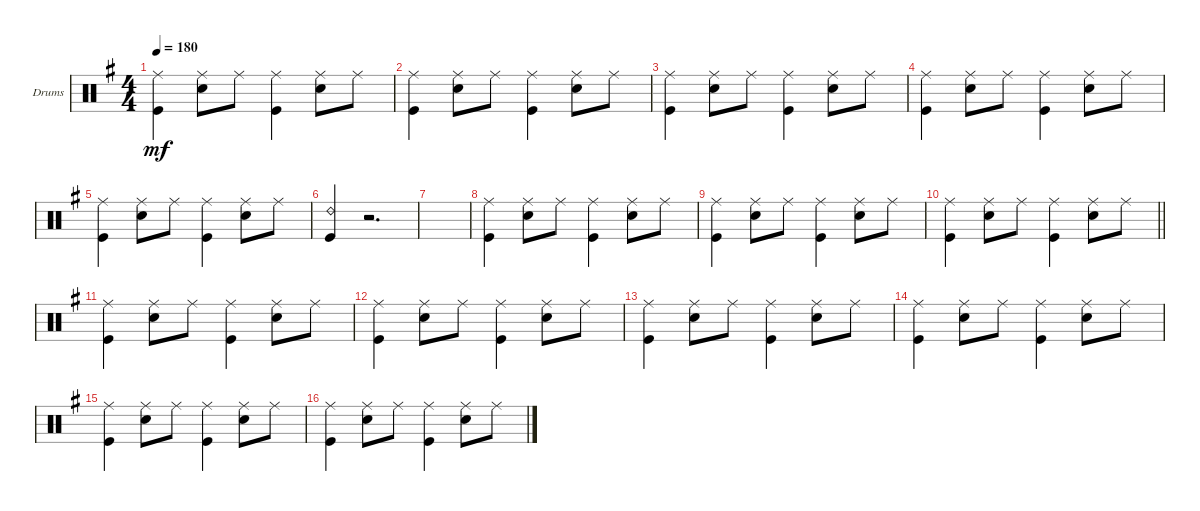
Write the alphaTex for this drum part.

\defaultSystemsLayout 4
\bracketExtendMode groupsimilarinstruments
\firstSystemTrackNameOrientation horizontal
\otherSystemsTrackNameOrientation horizontal
\track ("Drums Ringo" "Drums") {instrument percussion}
\staff {score}
\articulation defaults
\ts (4 4)
\tempo 180
\clef neutral
\ks g
("Ride (middle)" "Kick (hit)").4{dy mf} ("Snare (hit) 2" "Ride (middle)").8 "Ride (middle)".8 ("Ride (middle)" "Kick (hit)").4 ("Snare (hit) 2" "Ride (middle)").8 "Ride (middle)".8 |
("Ride (middle)" "Kick (hit)").4 ("Snare (hit) 2" "Ride (middle)").8 "Ride (middle)".8 ("Ride (middle)" "Kick (hit)").4 ("Snare (hit) 2" "Ride (middle)").8 "Ride (middle)".8 |
("Ride (middle)" "Kick (hit)").4 ("Snare (hit) 2" "Ride (middle)").8 "Ride (middle)".8 ("Ride (middle)" "Kick (hit)").4 ("Snare (hit) 2" "Ride (middle)").8 "Ride (middle)".8 |
("Ride (middle)" "Kick (hit)").4 ("Snare (hit) 2" "Ride (middle)").8 "Ride (middle)".8 ("Ride (middle)" "Kick (hit)").4 ("Snare (hit) 2" "Ride (middle)").8 "Ride (middle)".8 |
("Ride (middle)" "Kick (hit)").4 ("Snare (hit) 2" "Ride (middle)").8 "Ride (middle)".8 ("Ride (middle)" "Kick (hit)").4 ("Snare (hit) 2" "Ride (middle)").8 "Ride (middle)".8 |
("Ride (bell) 2" "Kick (hit)").4 r.2{d} |
|
("Ride (middle)" "Kick (hit)").4 ("Snare (hit) 2" "Ride (middle)").8 "Ride (middle)".8 ("Ride (middle)" "Kick (hit)").4 ("Snare (hit) 2" "Ride (middle)").8 "Ride (middle)".8 |
("Ride (middle)" "Kick (hit)").4 ("Snare (hit) 2" "Ride (middle)").8 "Ride (middle)".8 ("Ride (middle)" "Kick (hit)").4 ("Snare (hit) 2" "Ride (middle)").8 "Ride (middle)".8 |
\barLineRight lightlight
("Ride (middle)" "Kick (hit)").4 ("Snare (hit) 2" "Ride (middle)").8 "Ride (middle)".8 ("Ride (middle)" "Kick (hit)").4 ("Snare (hit) 2" "Ride (middle)").8 "Ride (middle)".8 |
("Ride (middle)" "Kick (hit)").4 ("Snare (hit) 2" "Ride (middle)").8 "Ride (middle)".8 ("Ride (middle)" "Kick (hit)").4 ("Snare (hit) 2" "Ride (middle)").8 "Ride (middle)".8 |
("Ride (middle)" "Kick (hit)").4 ("Snare (hit) 2" "Ride (middle)").8 "Ride (middle)".8 ("Ride (middle)" "Kick (hit)").4 ("Snare (hit) 2" "Ride (middle)").8 "Ride (middle)".8 |
("Ride (middle)" "Kick (hit)").4 ("Snare (hit) 2" "Ride (middle)").8 "Ride (middle)".8 ("Ride (middle)" "Kick (hit)").4 ("Snare (hit) 2" "Ride (middle)").8 "Ride (middle)".8 |
("Ride (middle)" "Kick (hit)").4 ("Snare (hit) 2" "Ride (middle)").8 "Ride (middle)".8 ("Ride (middle)" "Kick (hit)").4 ("Snare (hit) 2" "Ride (middle)").8 "Ride (middle)".8 |
("Ride (middle)" "Kick (hit)").4 ("Snare (hit) 2" "Ride (middle)").8 "Ride (middle)".8 ("Ride (middle)" "Kick (hit)").4 ("Snare (hit) 2" "Ride (middle)").8 "Ride (middle)".8 |
("Ride (middle)" "Kick (hit)").4 ("Snare (hit) 2" "Ride (middle)").8 "Ride (middle)".8 ("Ride (middle)" "Kick (hit)").4 ("Snare (hit) 2" "Ride (middle)").8 "Ride (middle)".8
